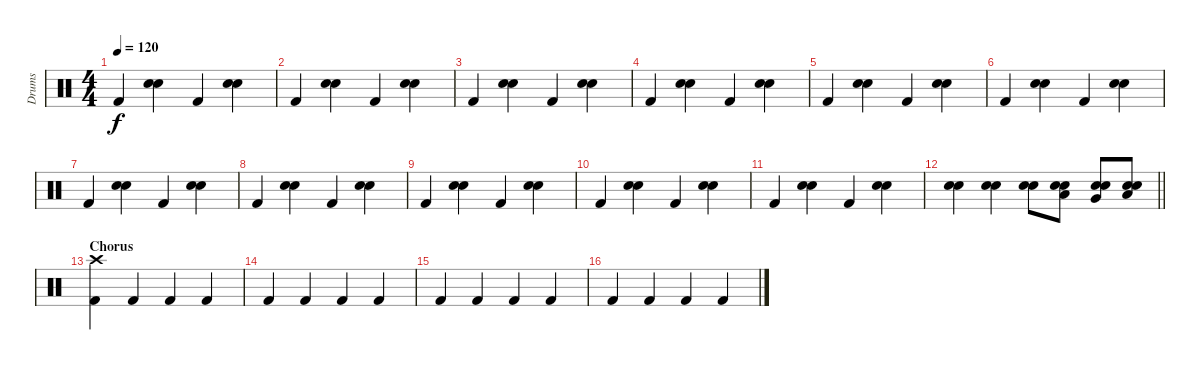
\track ("Drums" "Drums") {instrument percussion}
\staff {score}
\articulation defaults
\ts (4 4)
\tempo 120
\clef neutral
\ks c "Kick (hit) 2".4{dy f}
("Electric Snare (hit)" "Snare (hit) 2").4 "Kick (hit) 2".4 ("Electric Snare (hit)" "Snare (hit) 2").4 |
"Kick (hit) 2".4 ("Electric Snare (hit)" "Snare (hit) 2").4 "Kick (hit) 2".4 ("Electric Snare (hit)" "Snare (hit) 2").4 |
"Kick (hit) 2".4 ("Electric Snare (hit)" "Snare (hit) 2").4 "Kick (hit) 2".4 ("Electric Snare (hit)" "Snare (hit) 2").4 |
"Kick (hit) 2".4 ("Electric Snare (hit)" "Snare (hit) 2").4 "Kick (hit) 2".4 ("Electric Snare (hit)" "Snare (hit) 2").4 |
"Kick (hit) 2".4 ("Electric Snare (hit)" "Snare (hit) 2").4 "Kick (hit) 2".4 ("Electric Snare (hit)" "Snare (hit) 2").4 |
"Kick (hit) 2".4 ("Electric Snare (hit)" "Snare (hit) 2").4 "Kick (hit) 2".4 ("Electric Snare (hit)" "Snare (hit) 2").4 |
"Kick (hit) 2".4 ("Electric Snare (hit)" "Snare (hit) 2").4 "Kick (hit) 2".4 ("Electric Snare (hit)" "Snare (hit) 2").4 |
"Kick (hit) 2".4 ("Electric Snare (hit)" "Snare (hit) 2").4 "Kick (hit) 2".4 ("Electric Snare (hit)" "Snare (hit) 2").4 |
"Kick (hit) 2".4 ("Electric Snare (hit)" "Snare (hit) 2").4 "Kick (hit) 2".4 ("Electric Snare (hit)" "Snare (hit) 2").4 |
"Kick (hit) 2".4 ("Electric Snare (hit)" "Snare (hit) 2").4 "Kick (hit) 2".4 ("Electric Snare (hit)" "Snare (hit) 2").4 |
"Kick (hit) 2".4 ("Electric Snare (hit)" "Snare (hit) 2").4 "Kick (hit) 2".4 ("Electric Snare (hit)" "Snare (hit) 2").4 |
\barLineRight lightlight
("Electric Snare (hit)" "Snare (hit) 2").4 ("Electric Snare (hit)" "Snare (hit) 2").4 ("Electric Snare (hit)" "Snare (hit) 2").8 ("Low Tom (hit)" "Electric Snare (hit)" "Snare (hit) 2").8 ("Very Low Tom (hit)" "Electric Snare (hit)" "Snare (hit) 2").8 ("Low Floor Tom (hit)" "Electric Snare (hit)" "Snare (hit) 2").8 |
\section ("" "Chorus")
("Crash high (hit)" "Kick (hit) 2").4 "Kick (hit) 2".4 "Kick (hit) 2".4 "Kick (hit) 2".4 |
"Kick (hit) 2".4 "Kick (hit) 2".4 "Kick (hit) 2".4 "Kick (hit) 2".4 |
"Kick (hit) 2".4 "Kick (hit) 2".4 "Kick (hit) 2".4 "Kick (hit) 2".4 |
"Kick (hit) 2".4 "Kick (hit) 2".4 "Kick (hit) 2".4 "Kick (hit) 2".4
